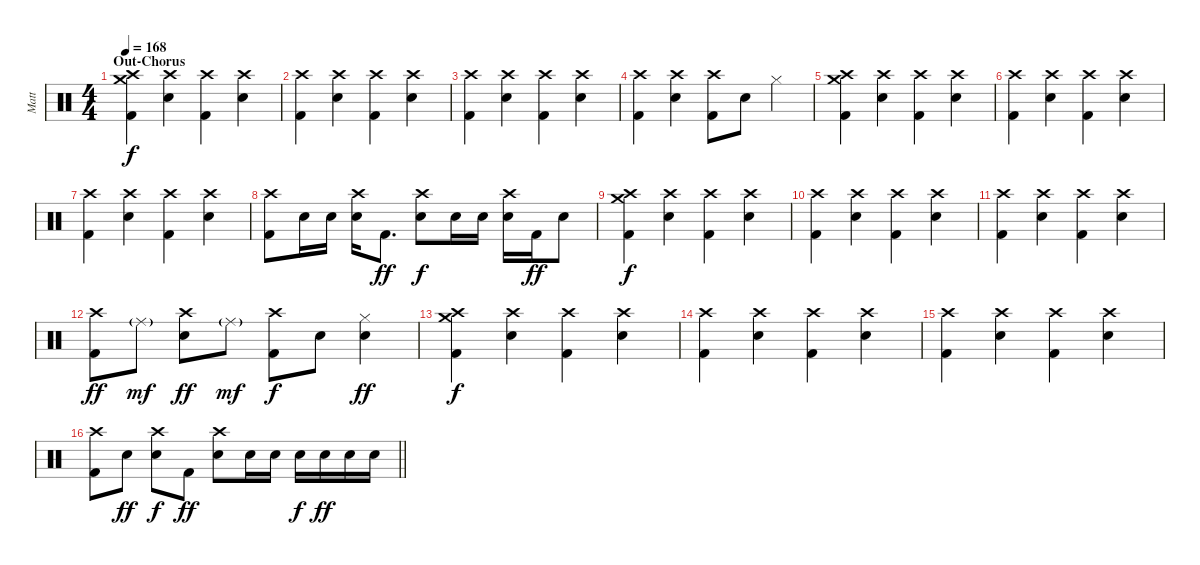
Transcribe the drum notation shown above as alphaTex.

\track ("Matt" "Matt") {instrument percussion}
\staff {score}
\articulation defaults
\ts (4 4)
\section ("" "Out-Chorus")
\tempo 168
\clef neutral
\ks c
("Crash medium (hit)" "Crash high (hit)" "Kick (hit) 2").4{dy f} ("Crash high (hit)" "Electric Snare (hit)").4 ("Crash high (hit)" "Kick (hit) 2").4 ("Crash high (hit)" "Electric Snare (hit)").4 |
("Crash high (hit)" "Kick (hit) 2").4 ("Crash high (hit)" "Electric Snare (hit)").4 ("Crash high (hit)" "Kick (hit) 2").4 ("Crash high (hit)" "Electric Snare (hit)").4 |
("Crash high (hit)" "Kick (hit) 2").4 ("Crash high (hit)" "Electric Snare (hit)").4 ("Crash high (hit)" "Kick (hit) 2").4 ("Crash high (hit)" "Electric Snare (hit)").4 |
("Crash high (hit)" "Kick (hit) 2").4 ("Crash high (hit)" "Electric Snare (hit)").4 ("Crash high (hit)" "Kick (hit) 2").8 "Electric Snare (hit)".8 "Hi-Hat (closed)".4 |
("Crash medium (hit)" "Crash high (hit)" "Kick (hit) 2").4 ("Crash high (hit)" "Electric Snare (hit)").4 ("Crash high (hit)" "Kick (hit) 2").4 ("Crash high (hit)" "Electric Snare (hit)").4 |
("Crash high (hit)" "Kick (hit) 2").4 ("Crash high (hit)" "Electric Snare (hit)").4 ("Crash high (hit)" "Kick (hit) 2").4 ("Crash high (hit)" "Electric Snare (hit)").4 |
("Crash high (hit)" "Kick (hit) 2").4 ("Crash high (hit)" "Electric Snare (hit)").4 ("Crash high (hit)" "Kick (hit) 2").4 ("Crash high (hit)" "Electric Snare (hit)").4 |
("Crash high (hit)" "Kick (hit) 2").8 "Electric Snare (hit)".16 "Electric Snare (hit)".16 ("Crash high (hit)" "Electric Snare (hit)").16 "Kick (hit) 2".8{d dy ff} ("Crash high (hit)" "Electric Snare (hit)").8{dy f} "Electric Snare (hit)".16 "Electric Snare (hit)".16 ("Crash high (hit)" "Electric Snare (hit)").16 "Kick (hit) 2".16{dy ff} "Electric Snare (hit)".8 |
("Crash medium (hit)" "Crash high (hit)" "Kick (hit) 2").4{dy f} ("Crash high (hit)" "Electric Snare (hit)").4 ("Crash high (hit)" "Kick (hit) 2").4 ("Crash high (hit)" "Electric Snare (hit)").4 |
("Crash high (hit)" "Kick (hit) 2").4 ("Crash high (hit)" "Electric Snare (hit)").4 ("Crash high (hit)" "Kick (hit) 2").4 ("Crash high (hit)" "Electric Snare (hit)").4 |
("Crash high (hit)" "Kick (hit) 2").4 ("Crash high (hit)" "Electric Snare (hit)").4 ("Crash high (hit)" "Kick (hit) 2").4 ("Crash high (hit)" "Electric Snare (hit)").4 |
("Crash high (hit)" "Kick (hit) 2").8{dy ff} "Ride (middle)"{g}.8{dy mf} ("Crash high (hit)" "Electric Snare (hit)").8{dy ff} "Ride (middle)"{g}.8{dy mf} ("Crash high (hit)" "Kick (hit) 2").8{dy f} "Electric Snare (hit)".8 ("Hi-Hat (closed)" "Electric Snare (hit)").4{dy ff} |
("Crash medium (hit)" "Crash high (hit)" "Kick (hit) 2").4{dy f} ("Crash high (hit)" "Electric Snare (hit)").4 ("Crash high (hit)" "Kick (hit) 2").4 ("Crash high (hit)" "Electric Snare (hit)").4 |
("Crash high (hit)" "Kick (hit) 2").4 ("Crash high (hit)" "Electric Snare (hit)").4 ("Crash high (hit)" "Kick (hit) 2").4 ("Crash high (hit)" "Electric Snare (hit)").4 |
("Crash high (hit)" "Kick (hit) 2").4 ("Crash high (hit)" "Electric Snare (hit)").4 ("Crash high (hit)" "Kick (hit) 2").4 ("Crash high (hit)" "Electric Snare (hit)").4 |
\barLineRight lightlight
("Crash high (hit)" "Kick (hit) 2").8 "Electric Snare (hit)".8{dy ff} ("Crash high (hit)" "Electric Snare (hit)").8{dy f} "Kick (hit) 2".8{dy ff} ("Crash high (hit)" "Electric Snare (hit)").8 "Electric Snare (hit)".16 "Electric Snare (hit)".16 "Electric Snare (hit)".16{dy f} "Electric Snare (hit)".16{dy ff} "Electric Snare (hit)".16 "Electric Snare (hit)".16
